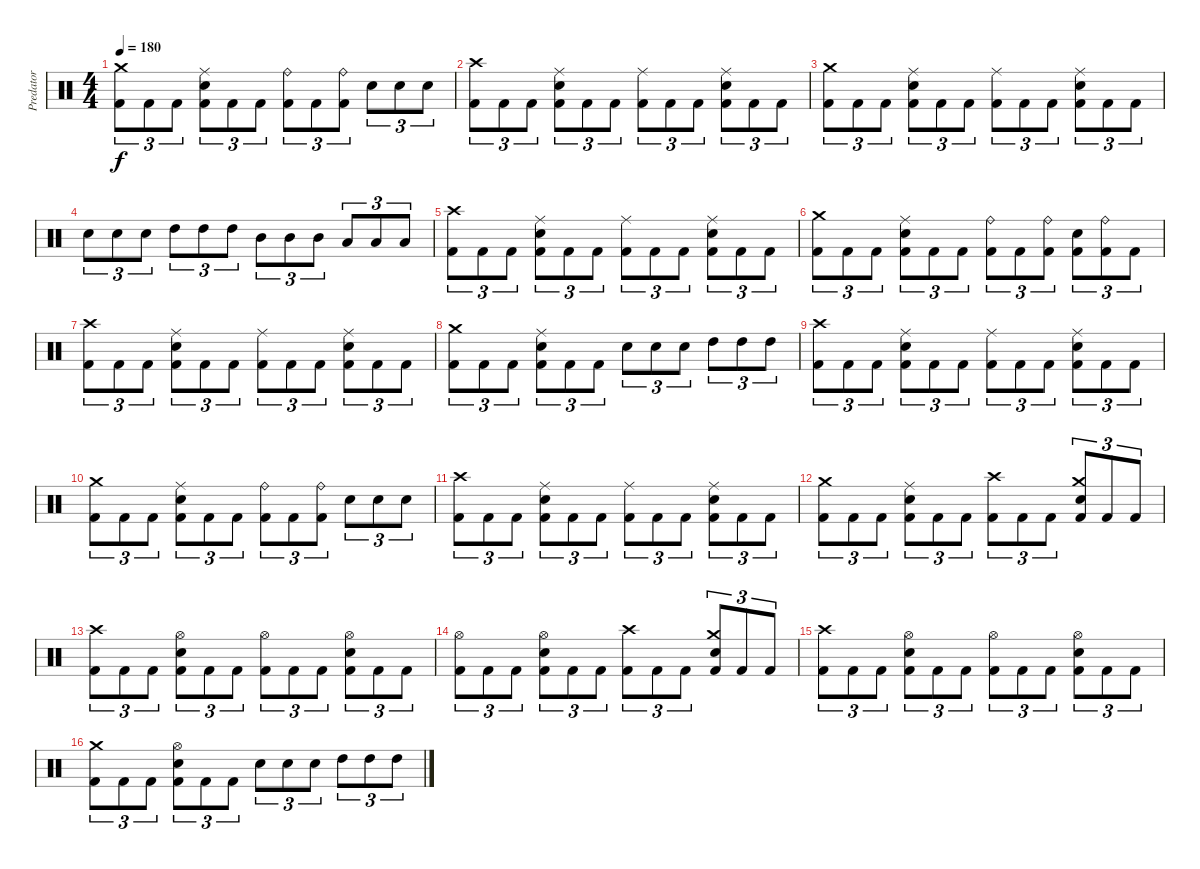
\track ("Predator" "Predator") {instrument percussion}
\staff {score}
\articulation defaults
\ts (4 4)
\tempo 180
\clef neutral
\ks c
("Kick (hit) 2" "Crash medium (hit)").8{tu (3 2) dy f} "Kick (hit) 2".8{tu (3 2)} "Kick (hit) 2".8{tu (3 2)} ("Kick (hit) 2" "Electric Snare (hit)" "Ride (middle)").8{tu (3 2)} "Kick (hit) 2".8{tu (3 2)} "Kick (hit) 2".8{tu (3 2)} ("Kick (hit) 2" "Ride (bell)").8{tu (3 2)} "Kick (hit) 2".8{tu (3 2)} ("Kick (hit) 2" "Ride (bell)").8{tu (3 2)} "Electric Snare (hit)".8{tu (3 2)} "Electric Snare (hit)".8{tu (3 2)} "Electric Snare (hit)".8{tu (3 2)} |
("Kick (hit) 2" "Crash high (hit)").8{tu (3 2)} "Kick (hit) 2".8{tu (3 2)} "Kick (hit) 2".8{tu (3 2)} ("Kick (hit) 2" "Electric Snare (hit)" "Ride (middle)").8{tu (3 2)} "Kick (hit) 2".8{tu (3 2)} "Kick (hit) 2".8{tu (3 2)} ("Kick (hit) 2" "Ride (middle)").8{tu (3 2)} "Kick (hit) 2".8{tu (3 2)} "Kick (hit) 2".8{tu (3 2)} ("Kick (hit) 2" "Electric Snare (hit)" "Ride (middle)").8{tu (3 2)} "Kick (hit) 2".8{tu (3 2)} "Kick (hit) 2".8{tu (3 2)} |
("Kick (hit) 2" "Crash medium (hit)").8{tu (3 2)} "Kick (hit) 2".8{tu (3 2)} "Kick (hit) 2".8{tu (3 2)} ("Kick (hit) 2" "Electric Snare (hit)" "Ride (middle)").8{tu (3 2)} "Kick (hit) 2".8{tu (3 2)} "Kick (hit) 2".8{tu (3 2)} ("Kick (hit) 2" "Ride (middle)").8{tu (3 2)} "Kick (hit) 2".8{tu (3 2)} "Kick (hit) 2".8{tu (3 2)} ("Kick (hit) 2" "Electric Snare (hit)" "Ride (middle)").8{tu (3 2)} "Kick (hit) 2".8{tu (3 2)} "Kick (hit) 2".8{tu (3 2)} |
"Electric Snare (hit)".8{tu (3 2)} "Electric Snare (hit)".8{tu (3 2)} "Electric Snare (hit)".8{tu (3 2)} "High Tom (hit)".8{tu (3 2)} "High Tom (hit)".8{tu (3 2)} "High Tom (hit)".8{tu (3 2)} "Mid Tom (hit)".8{tu (3 2)} "Mid Tom (hit)".8{tu (3 2)} "Mid Tom (hit)".8{tu (3 2)} "Low Tom (hit)".8{tu (3 2)} "Low Tom (hit)".8{tu (3 2)} "Low Tom (hit)".8{tu (3 2)} |
("Kick (hit) 2" "Crash high (hit)").8{tu (3 2)} "Kick (hit) 2".8{tu (3 2)} "Kick (hit) 2".8{tu (3 2)} ("Kick (hit) 2" "Electric Snare (hit)" "Ride (middle)").8{tu (3 2)} "Kick (hit) 2".8{tu (3 2)} "Kick (hit) 2".8{tu (3 2)} ("Kick (hit) 2" "Ride (middle)").8{tu (3 2)} "Kick (hit) 2".8{tu (3 2)} "Kick (hit) 2".8{tu (3 2)} ("Kick (hit) 2" "Electric Snare (hit)" "Ride (middle)").8{tu (3 2)} "Kick (hit) 2".8{tu (3 2)} "Kick (hit) 2".8{tu (3 2)} |
("Kick (hit) 2" "Crash medium (hit)").8{tu (3 2)} "Kick (hit) 2".8{tu (3 2)} "Kick (hit) 2".8{tu (3 2)} ("Kick (hit) 2" "Electric Snare (hit)" "Ride (middle)").8{tu (3 2)} "Kick (hit) 2".8{tu (3 2)} "Kick (hit) 2".8{tu (3 2)} ("Kick (hit) 2" "Ride (bell)").8{tu (3 2)} "Kick (hit) 2".8{tu (3 2)} ("Kick (hit) 2" "Ride (bell)").8{tu (3 2)} ("Kick (hit) 2" "Electric Snare (hit)").8{tu (3 2)} ("Kick (hit) 2" "Ride (bell)").8{tu (3 2)} "Kick (hit) 2".8{tu (3 2)} |
("Kick (hit) 2" "Crash high (hit)").8{tu (3 2)} "Kick (hit) 2".8{tu (3 2)} "Kick (hit) 2".8{tu (3 2)} ("Kick (hit) 2" "Electric Snare (hit)" "Ride (middle)").8{tu (3 2)} "Kick (hit) 2".8{tu (3 2)} "Kick (hit) 2".8{tu (3 2)} ("Kick (hit) 2" "Ride (middle)").8{tu (3 2)} "Kick (hit) 2".8{tu (3 2)} "Kick (hit) 2".8{tu (3 2)} ("Kick (hit) 2" "Electric Snare (hit)" "Ride (middle)").8{tu (3 2)} "Kick (hit) 2".8{tu (3 2)} "Kick (hit) 2".8{tu (3 2)} |
("Kick (hit) 2" "Crash medium (hit)").8{tu (3 2)} "Kick (hit) 2".8{tu (3 2)} "Kick (hit) 2".8{tu (3 2)} ("Kick (hit) 2" "Electric Snare (hit)" "Ride (middle)").8{tu (3 2)} "Kick (hit) 2".8{tu (3 2)} "Kick (hit) 2".8{tu (3 2)} "Electric Snare (hit)".8{tu (3 2)} "Electric Snare (hit)".8{tu (3 2)} "Electric Snare (hit)".8{tu (3 2)} "High Tom (hit)".8{tu (3 2)} "High Tom (hit)".8{tu (3 2)} "High Tom (hit)".8{tu (3 2)} |
("Kick (hit) 2" "Crash high (hit)").8{tu (3 2)} "Kick (hit) 2".8{tu (3 2)} "Kick (hit) 2".8{tu (3 2)} ("Kick (hit) 2" "Electric Snare (hit)" "Ride (middle)").8{tu (3 2)} "Kick (hit) 2".8{tu (3 2)} "Kick (hit) 2".8{tu (3 2)} ("Kick (hit) 2" "Ride (middle)").8{tu (3 2)} "Kick (hit) 2".8{tu (3 2)} "Kick (hit) 2".8{tu (3 2)} ("Kick (hit) 2" "Electric Snare (hit)" "Ride (middle)").8{tu (3 2)} "Kick (hit) 2".8{tu (3 2)} "Kick (hit) 2".8{tu (3 2)} |
("Kick (hit) 2" "Crash medium (hit)").8{tu (3 2)} "Kick (hit) 2".8{tu (3 2)} "Kick (hit) 2".8{tu (3 2)} ("Kick (hit) 2" "Electric Snare (hit)" "Ride (middle)").8{tu (3 2)} "Kick (hit) 2".8{tu (3 2)} "Kick (hit) 2".8{tu (3 2)} ("Kick (hit) 2" "Ride (bell)").8{tu (3 2)} "Kick (hit) 2".8{tu (3 2)} ("Kick (hit) 2" "Ride (bell)").8{tu (3 2)} "Electric Snare (hit)".8{tu (3 2)} "Electric Snare (hit)".8{tu (3 2)} "Electric Snare (hit)".8{tu (3 2)} |
("Kick (hit) 2" "Crash high (hit)").8{tu (3 2)} "Kick (hit) 2".8{tu (3 2)} "Kick (hit) 2".8{tu (3 2)} ("Kick (hit) 2" "Electric Snare (hit)" "Ride (middle)").8{tu (3 2)} "Kick (hit) 2".8{tu (3 2)} "Kick (hit) 2".8{tu (3 2)} ("Kick (hit) 2" "Ride (middle)").8{tu (3 2)} "Kick (hit) 2".8{tu (3 2)} "Kick (hit) 2".8{tu (3 2)} ("Kick (hit) 2" "Electric Snare (hit)" "Ride (middle)").8{tu (3 2)} "Kick (hit) 2".8{tu (3 2)} "Kick (hit) 2".8{tu (3 2)} |
("Kick (hit) 2" "Crash medium (hit)").8{tu (3 2)} "Kick (hit) 2".8{tu (3 2)} "Kick (hit) 2".8{tu (3 2)} ("Kick (hit) 2" "Electric Snare (hit)" "Ride (middle)").8{tu (3 2)} "Kick (hit) 2".8{tu (3 2)} "Kick (hit) 2".8{tu (3 2)} ("Kick (hit) 2" "Crash high (hit)").8{tu (3 2)} "Kick (hit) 2".8{tu (3 2)} "Kick (hit) 2".8{tu (3 2)} ("Kick (hit) 2" "Electric Snare (hit)" "Crash medium (hit)").8{tu (3 2)} "Kick (hit) 2".8{tu (3 2)} "Kick (hit) 2".8{tu (3 2)} |
("Kick (hit) 2" "Crash high (hit)").8{tu (3 2)} "Kick (hit) 2".8{tu (3 2)} "Kick (hit) 2".8{tu (3 2)} ("Kick (hit) 2" "Electric Snare (hit)" "Hi-Hat (open)").8{tu (3 2)} "Kick (hit) 2".8{tu (3 2)} "Kick (hit) 2".8{tu (3 2)} ("Kick (hit) 2" "Hi-Hat (open)").8{tu (3 2)} "Kick (hit) 2".8{tu (3 2)} "Kick (hit) 2".8{tu (3 2)} ("Kick (hit) 2" "Electric Snare (hit)" "Hi-Hat (open)").8{tu (3 2)} "Kick (hit) 2".8{tu (3 2)} "Kick (hit) 2".8{tu (3 2)} |
("Kick (hit) 2" "Hi-Hat (open)").8{tu (3 2)} "Kick (hit) 2".8{tu (3 2)} "Kick (hit) 2".8{tu (3 2)} ("Kick (hit) 2" "Electric Snare (hit)" "Hi-Hat (open)").8{tu (3 2)} "Kick (hit) 2".8{tu (3 2)} "Kick (hit) 2".8{tu (3 2)} ("Kick (hit) 2" "Crash high (hit)").8{tu (3 2)} "Kick (hit) 2".8{tu (3 2)} "Kick (hit) 2".8{tu (3 2)} ("Kick (hit) 2" "Electric Snare (hit)" "Crash medium (hit)").8{tu (3 2)} "Kick (hit) 2".8{tu (3 2)} "Kick (hit) 2".8{tu (3 2)} |
("Kick (hit) 2" "Crash high (hit)").8{tu (3 2)} "Kick (hit) 2".8{tu (3 2)} "Kick (hit) 2".8{tu (3 2)} ("Kick (hit) 2" "Electric Snare (hit)" "Hi-Hat (open)").8{tu (3 2)} "Kick (hit) 2".8{tu (3 2)} "Kick (hit) 2".8{tu (3 2)} ("Kick (hit) 2" "Hi-Hat (open)").8{tu (3 2)} "Kick (hit) 2".8{tu (3 2)} "Kick (hit) 2".8{tu (3 2)} ("Kick (hit) 2" "Electric Snare (hit)" "Hi-Hat (open)").8{tu (3 2)} "Kick (hit) 2".8{tu (3 2)} "Kick (hit) 2".8{tu (3 2)} |
("Kick (hit) 2" "Crash medium (hit)").8{tu (3 2)} "Kick (hit) 2".8{tu (3 2)} "Kick (hit) 2".8{tu (3 2)} ("Kick (hit) 2" "Electric Snare (hit)" "Hi-Hat (open)").8{tu (3 2)} "Kick (hit) 2".8{tu (3 2)} "Kick (hit) 2".8{tu (3 2)} "Electric Snare (hit)".8{tu (3 2)} "Electric Snare (hit)".8{tu (3 2)} "Electric Snare (hit)".8{tu (3 2)} "High Tom (hit)".8{tu (3 2)} "High Tom (hit)".8{tu (3 2)} "High Tom (hit)".8{tu (3 2)}
